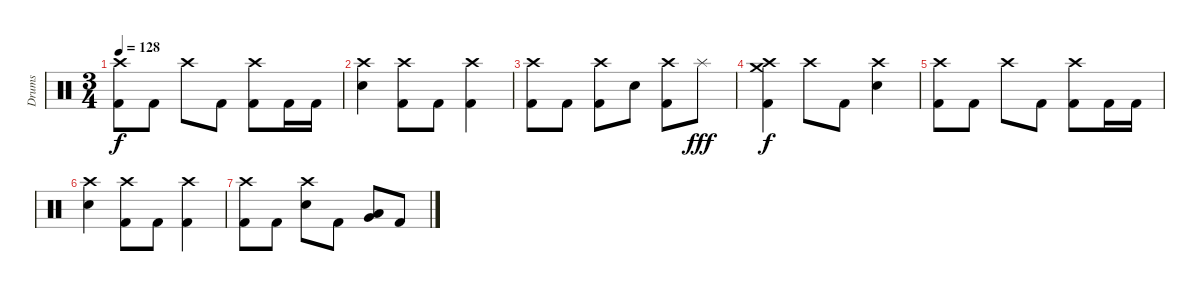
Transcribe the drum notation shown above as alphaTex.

\track ("Drums" "Drums") {instrument percussion}
\staff {score}
\articulation defaults
\ts (3 4)
\tempo 128
\clef neutral
\ks c
("Crash high (hit)" "Kick (hit) 2").8{dy f} "Kick (hit) 2".8 "Crash high (hit)".8 "Kick (hit) 2".8 ("Crash high (hit)" "Kick (hit) 2").8 "Kick (hit) 2".16 "Kick (hit) 2".16 |
("Crash high (hit)" "Electric Snare (hit)").4 ("Crash high (hit)" "Kick (hit) 2").8 "Kick (hit) 2".8 ("Crash high (hit)" "Kick (hit) 2").4 |
("Crash high (hit)" "Kick (hit) 2").8 "Kick (hit) 2".8 ("Crash high (hit)" "Kick (hit) 2").8 "Electric Snare (hit)".8 ("Crash high (hit)" "Kick (hit) 2").8 "Splash (hit)".8{dy fff} |
("Crash medium (hit)" "Crash high (hit)" "Kick (hit) 2").4{dy f volume 0} "Crash high (hit)".8 "Kick (hit) 2".8 ("Crash high (hit)" "Electric Snare (hit)").4 |
("Crash high (hit)" "Kick (hit) 2").8 "Kick (hit) 2".8 "Crash high (hit)".8 "Kick (hit) 2".8 ("Crash high (hit)" "Kick (hit) 2").8 "Kick (hit) 2".16 "Kick (hit) 2".16 |
("Crash high (hit)" "Electric Snare (hit)").4 ("Crash high (hit)" "Kick (hit) 2").8 "Kick (hit) 2".8 ("Crash high (hit)" "Kick (hit) 2").4 |
("Crash high (hit)" "Kick (hit) 2").8 "Kick (hit) 2".8 ("Crash high (hit)" "Electric Snare (hit)").8 "Kick (hit) 2".8 ("Low Tom (hit)" "Very Low Tom (hit)").8{bu 120} "Kick (hit) 2".8
